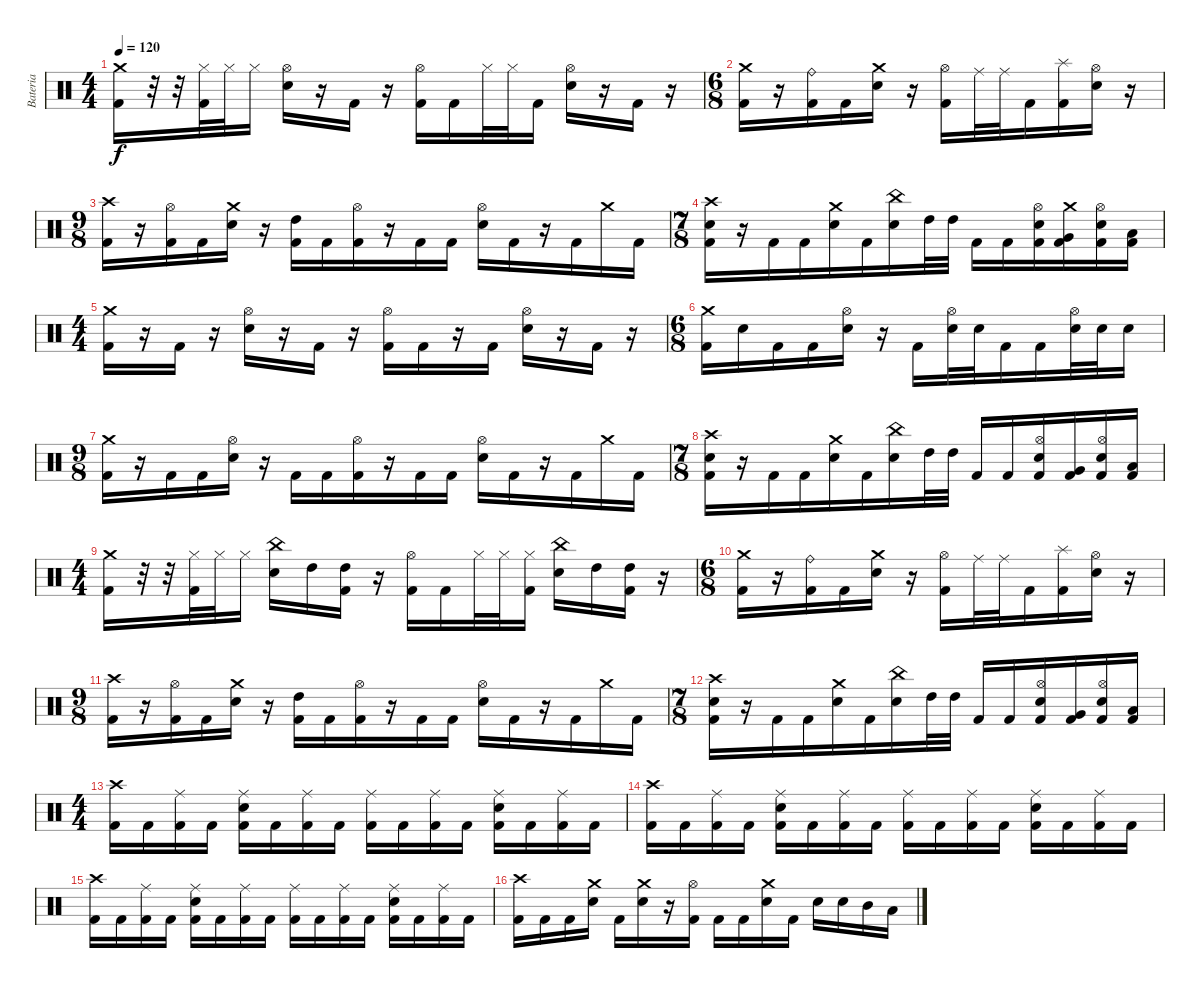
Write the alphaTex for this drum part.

\track ("Bateria" "Bateria") {instrument percussion}
\staff {score}
\articulation defaults
\ts (4 4)
\tempo 120
\clef neutral
\ks c
("Crash medium (hit)" "Kick (hit) 2").16{dy f} r.32 r.32 ("Hi-Hat (closed)" "Kick (hit) 2").32 "Hi-Hat (closed)".32 "Hi-Hat (closed)".16 ("Hi-Hat (open)" "Electric Snare (hit)").16 r.16 "Kick (hit) 2".16 r.16 ("Hi-Hat (open)" "Kick (hit) 2").16 "Kick (hit) 2".16 "Hi-Hat (closed)".32 "Hi-Hat (closed)".32 "Kick (hit) 2".16 ("Hi-Hat (open)" "Electric Snare (hit)").16 r.16 "Kick (hit) 2".16 r.16 |
\ts (6 8)
("Crash medium (hit)" "Kick (hit) 2").16 r.16 ("Ride (bell)" "Kick (hit) 2").16 "Kick (hit) 2".16 ("Crash medium (hit)" "Electric Snare (hit)").16 r.16 ("Hi-Hat (open)" "Kick (hit) 2").16 "Ride (middle)".32 "Ride (middle)".32 "Kick (hit) 2".16 ("Splash (hit)" "Kick (hit) 2").16 ("Hi-Hat (open)" "Electric Snare (hit)").16 r.16 |
\ts (9 8)
("Crash high (hit)" "Kick (hit) 2").16 r.16 ("Hi-Hat (open)" "Kick (hit) 2").16 "Kick (hit) 2".16 ("Crash medium (hit)" "Electric Snare (hit)").16 r.16 ("High Tom (hit)" "Kick (hit) 2").16 "Kick (hit) 2".16 ("Hi-Hat (open)" "Kick (hit) 2").16 r.16 "Kick (hit) 2".16 "Kick (hit) 2".16 ("Hi-Hat (open)" "Electric Snare (hit)").16 "Kick (hit) 2".16 r.16 "Kick (hit) 2".16 "Crash medium (hit)".16 "Kick (hit) 2".16 |
\ts (7 8)
("Crash high (hit)" "Electric Snare (hit)" "Kick (hit) 2").16 r.16 "Kick (hit) 2".16 "Kick (hit) 2".16 ("Crash medium (hit)" "Electric Snare (hit)").16 "Kick (hit) 2".16 ("China (hit)" "Electric Snare (hit)").16 "High Tom (hit)".32 "High Tom (hit)".32 "Kick (hit) 2".16 "Kick (hit) 2".16 ("Hi-Hat (open)" "Electric Snare (hit)" "Kick (hit) 2").16 ("Crash medium (hit)" "Very Low Tom (hit)" "Kick (hit) 2").16 ("Hi-Hat (open)" "Electric Snare (hit)" "Kick (hit) 2").16 ("Low Tom (hit)" "Kick (hit) 2").16 |
\ts (4 4)
("Crash medium (hit)" "Kick (hit) 2").16 r.16 "Kick (hit) 2".16 r.16 ("Hi-Hat (open)" "Electric Snare (hit)").16 r.16 "Kick (hit) 2".16 r.16 ("Hi-Hat (open)" "Kick (hit) 2").16 "Kick (hit) 2".16 r.16 "Kick (hit) 2".16 ("Hi-Hat (open)" "Electric Snare (hit)").16 r.16 "Kick (hit) 2".16 r.16 |
\ts (6 8)
("Crash medium (hit)" "Kick (hit) 2").16 "Electric Snare (hit)".16 "Kick (hit) 2".16 "Kick (hit) 2".16 ("Hi-Hat (open)" "Electric Snare (hit)").16 r.16 "Kick (hit) 2".16 ("Hi-Hat (open)" "Electric Snare (hit)").32 "Electric Snare (hit)".32 "Kick (hit) 2".16 "Kick (hit) 2".16 ("Hi-Hat (open)" "Electric Snare (hit)").32 "Electric Snare (hit)".32 "Electric Snare (hit)".16 |
\ts (9 8)
("Crash medium (hit)" "Kick (hit) 2").16 r.16 "Kick (hit) 2".16 "Kick (hit) 2".16 ("Hi-Hat (open)" "Electric Snare (hit)").16 r.16 "Kick (hit) 2".16 "Kick (hit) 2".16 ("Hi-Hat (open)" "Kick (hit) 2").16 r.16 "Kick (hit) 2".16 "Kick (hit) 2".16 ("Hi-Hat (open)" "Electric Snare (hit)").16 "Kick (hit) 2".16 r.16 "Kick (hit) 2".16 "Crash medium (hit)".16 "Kick (hit) 2".16 |
\ts (7 8)
("Crash high (hit)" "Electric Snare (hit)" "Kick (hit) 2").16 r.16 "Kick (hit) 2".16 "Kick (hit) 2".16 ("Crash medium (hit)" "Electric Snare (hit)").16 "Kick (hit) 2".16 ("China (hit)" "Electric Snare (hit)").16 "High Tom (hit)".32 "High Tom (hit)".32 "Kick (hit) 2".16 "Kick (hit) 2".16 ("Hi-Hat (open)" "Electric Snare (hit)" "Kick (hit) 2").16 ("Very Low Tom (hit)" "Kick (hit) 2").16 ("Hi-Hat (open)" "Electric Snare (hit)" "Kick (hit) 2").16 ("Low Tom (hit)" "Kick (hit) 2").16 |
\ts (4 4)
("Crash medium (hit)" "Kick (hit) 2").16 r.32 r.32 ("Hi-Hat (closed)" "Kick (hit) 2").32 "Hi-Hat (closed)".32 "Hi-Hat (closed)".16 ("China (hit)" "Electric Snare (hit)").16 "High Tom (hit)".16 ("High Tom (hit)" "Kick (hit) 2").16 r.16 ("Hi-Hat (open)" "Kick (hit) 2").16 "Kick (hit) 2".16 "Hi-Hat (closed)".32 "Hi-Hat (closed)".32 ("Hi-Hat (closed)" "Kick (hit) 2").16 ("China (hit)" "Electric Snare (hit)").16 "High Tom (hit)".16 ("High Tom (hit)" "Kick (hit) 2").16 r.16 |
\ts (6 8)
("Crash medium (hit)" "Kick (hit) 2").16 r.16 ("Ride (bell)" "Kick (hit) 2").16 "Kick (hit) 2".16 ("Crash medium (hit)" "Electric Snare (hit)").16 r.16 ("Hi-Hat (open)" "Kick (hit) 2").16 "Ride (middle)".32 "Ride (middle)".32 "Kick (hit) 2".16 ("Splash (hit)" "Kick (hit) 2").16 ("Hi-Hat (open)" "Electric Snare (hit)").16 r.16 |
\ts (9 8)
("Crash high (hit)" "Kick (hit) 2").16 r.16 ("Hi-Hat (open)" "Kick (hit) 2").16 "Kick (hit) 2".16 ("Crash medium (hit)" "Electric Snare (hit)").16 r.16 ("High Tom (hit)" "Kick (hit) 2").16 "Kick (hit) 2".16 ("Hi-Hat (open)" "Kick (hit) 2").16 r.16 "Kick (hit) 2".16 "Kick (hit) 2".16 ("Hi-Hat (open)" "Electric Snare (hit)").16 "Kick (hit) 2".16 r.16 "Kick (hit) 2".16 "Crash medium (hit)".16 "Kick (hit) 2".16 |
\ts (7 8)
("Crash high (hit)" "Electric Snare (hit)" "Kick (hit) 2").16 r.16 "Kick (hit) 2".16 "Kick (hit) 2".16 ("Crash medium (hit)" "Electric Snare (hit)").16 "Kick (hit) 2".16 ("China (hit)" "Electric Snare (hit)").16 "High Tom (hit)".32 "High Tom (hit)".32 "Kick (hit) 2".16 "Kick (hit) 2".16 ("Hi-Hat (open)" "Electric Snare (hit)" "Kick (hit) 2").16 ("Very Low Tom (hit)" "Kick (hit) 2").16 ("Hi-Hat (open)" "Electric Snare (hit)" "Kick (hit) 2").16 ("Low Tom (hit)" "Kick (hit) 2").16 |
\ts (4 4)
("Crash high (hit)" "Kick (hit) 2").16 "Kick (hit) 2".16 ("Ride (middle)" "Kick (hit) 2").16 "Kick (hit) 2".16 ("Ride (middle)" "Electric Snare (hit)" "Kick (hit) 2").16 "Kick (hit) 2".16 ("Ride (middle)" "Kick (hit) 2").16 "Kick (hit) 2".16 ("Ride (middle)" "Kick (hit) 2").16 "Kick (hit) 2".16 ("Ride (middle)" "Kick (hit) 2").16 "Kick (hit) 2".16 ("Ride (middle)" "Electric Snare (hit)" "Kick (hit) 2").16 "Kick (hit) 2".16 ("Ride (middle)" "Kick (hit) 2").16 "Kick (hit) 2".16 |
("Crash high (hit)" "Kick (hit) 2").16 "Kick (hit) 2".16 ("Ride (middle)" "Kick (hit) 2").16 "Kick (hit) 2".16 ("Ride (middle)" "Electric Snare (hit)" "Kick (hit) 2").16 "Kick (hit) 2".16 ("Ride (middle)" "Kick (hit) 2").16 "Kick (hit) 2".16 ("Ride (middle)" "Kick (hit) 2").16 "Kick (hit) 2".16 ("Ride (middle)" "Kick (hit) 2").16 "Kick (hit) 2".16 ("Ride (middle)" "Electric Snare (hit)" "Kick (hit) 2").16 "Kick (hit) 2".16 ("Ride (middle)" "Kick (hit) 2").16 "Kick (hit) 2".16 |
("Crash high (hit)" "Kick (hit) 2").16 "Kick (hit) 2".16 ("Ride (middle)" "Kick (hit) 2").16 "Kick (hit) 2".16 ("Ride (middle)" "Electric Snare (hit)" "Kick (hit) 2").16 "Kick (hit) 2".16 ("Ride (middle)" "Kick (hit) 2").16 "Kick (hit) 2".16 ("Ride (middle)" "Kick (hit) 2").16 "Kick (hit) 2".16 ("Ride (middle)" "Kick (hit) 2").16 "Kick (hit) 2".16 ("Ride (middle)" "Electric Snare (hit)" "Kick (hit) 2").16 "Kick (hit) 2".16 ("Ride (middle)" "Kick (hit) 2").16 "Kick (hit) 2".16 |
("Crash high (hit)" "Kick (hit) 2").16 "Kick (hit) 2".16 "Kick (hit) 2".16 ("Crash medium (hit)" "Electric Snare (hit)").16 "Kick (hit) 2".16 ("Crash medium (hit)" "Electric Snare (hit)").16 r.16 ("Hi-Hat (open)" "Kick (hit) 2").16 "Kick (hit) 2".16 "Kick (hit) 2".16 ("Crash medium (hit)" "Electric Snare (hit)").16 "Kick (hit) 2".16 "Electric Snare (hit)".16 "Electric Snare (hit)".16 "Mid Tom (hit)".16 "Low Tom (hit)".16
